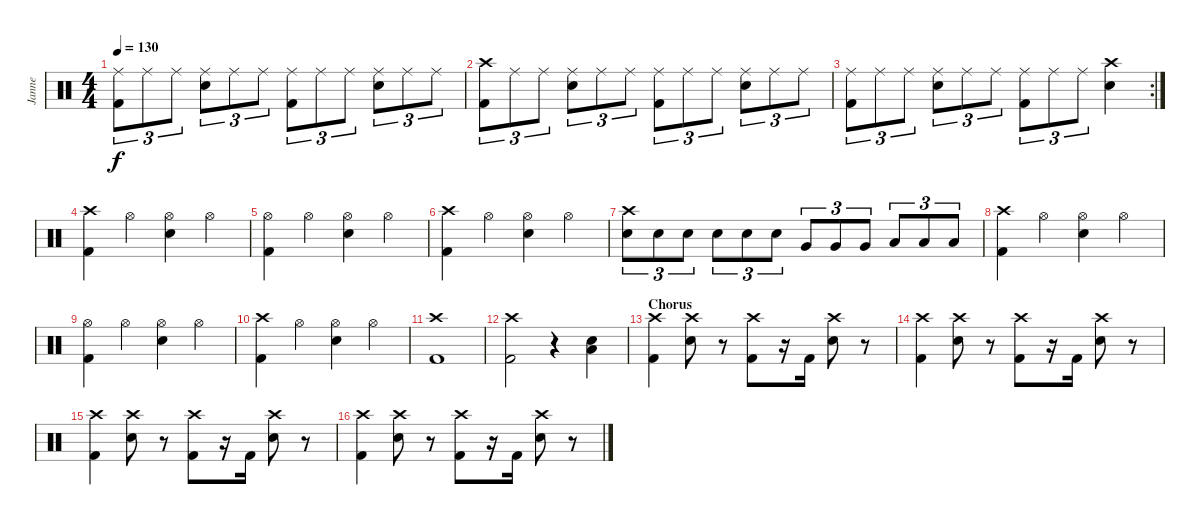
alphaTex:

\track ("Janne" "Janne") {instrument percussion}
\staff {score}
\articulation defaults
\ts (4 4)
\tempo 130
\clef neutral
\ks c
("Ride (middle)" "Kick (hit) 2").8{tu (3 2) dy f} "Ride (middle)".8{tu (3 2)} "Ride (middle)".8{tu (3 2)} ("Ride (middle)" "Electric Snare (hit)").8{tu (3 2)} "Ride (middle)".8{tu (3 2)} "Ride (middle)".8{tu (3 2)} ("Ride (middle)" "Kick (hit) 2").8{tu (3 2)} "Ride (middle)".8{tu (3 2)} "Ride (middle)".8{tu (3 2)} ("Ride (middle)" "Electric Snare (hit)").8{tu (3 2)} "Ride (middle)".8{tu (3 2)} "Ride (middle)".8{tu (3 2)} |
("Crash high (hit)" "Kick (hit) 2").8{tu (3 2)} "Ride (middle)".8{tu (3 2)} "Ride (middle)".8{tu (3 2)} ("Ride (middle)" "Electric Snare (hit)").8{tu (3 2)} "Ride (middle)".8{tu (3 2)} "Ride (middle)".8{tu (3 2)} ("Ride (middle)" "Kick (hit) 2").8{tu (3 2)} "Ride (middle)".8{tu (3 2)} "Ride (middle)".8{tu (3 2)} ("Ride (middle)" "Electric Snare (hit)").8{tu (3 2)} "Ride (middle)".8{tu (3 2)} "Ride (middle)".8{tu (3 2)} |
\rc 2
("Ride (middle)" "Kick (hit) 2").8{tu (3 2)} "Ride (middle)".8{tu (3 2)} "Ride (middle)".8{tu (3 2)} ("Ride (middle)" "Electric Snare (hit)").8{tu (3 2)} "Ride (middle)".8{tu (3 2)} "Ride (middle)".8{tu (3 2)} ("Ride (middle)" "Kick (hit) 2").8{tu (3 2)} "Ride (middle)".8{tu (3 2)} "Ride (middle)".8{tu (3 2)} ("Crash high (hit)" "Electric Snare (hit)").4 |
("Crash high (hit)" "Kick (hit) 2").4 "Hi-Hat (open)".4 ("Hi-Hat (open)" "Electric Snare (hit)").4 "Hi-Hat (open)".4 |
("Hi-Hat (open)" "Kick (hit) 2").4 "Hi-Hat (open)".4 ("Hi-Hat (open)" "Electric Snare (hit)").4 "Hi-Hat (open)".4 |
("Crash high (hit)" "Kick (hit) 2").4 "Hi-Hat (open)".4 ("Hi-Hat (open)" "Electric Snare (hit)").4 "Hi-Hat (open)".4 |
("Crash high (hit)" "Electric Snare (hit)").8{tu (3 2)} "Electric Snare (hit)".8{tu (3 2)} "Electric Snare (hit)".8{tu (3 2)} "Electric Snare (hit)".8{tu (3 2)} "Electric Snare (hit)".8{tu (3 2)} "Electric Snare (hit)".8{tu (3 2)} "Very Low Tom (hit)".8{tu (3 2)} "Very Low Tom (hit)".8{tu (3 2)} "Very Low Tom (hit)".8{tu (3 2)} "Low Floor Tom (hit)".8{tu (3 2)} "Low Floor Tom (hit)".8{tu (3 2)} "Low Floor Tom (hit)".8{tu (3 2)} |
("Crash high (hit)" "Kick (hit) 2").4 "Hi-Hat (open)".4 ("Hi-Hat (open)" "Electric Snare (hit)").4 "Hi-Hat (open)".4 |
("Hi-Hat (open)" "Kick (hit) 2").4 "Hi-Hat (open)".4 ("Hi-Hat (open)" "Electric Snare (hit)").4 "Hi-Hat (open)".4 |
("Crash high (hit)" "Kick (hit) 2").4 "Hi-Hat (open)".4 ("Hi-Hat (open)" "Electric Snare (hit)").4 "Hi-Hat (open)".4 |
("Crash high (hit)" "Kick (hit) 2").1 |
("Crash high (hit)" "Kick (hit) 2").2 r.4 ("Low Floor Tom (hit)" "Electric Snare (hit)").4 |
\section ("" "Chorus")
("Crash high (hit)" "Kick (hit) 2").4 ("Crash high (hit)" "Electric Snare (hit)").8 r.8 ("Crash high (hit)" "Kick (hit) 2").8 r.16 "Kick (hit) 2".16 ("Crash high (hit)" "Electric Snare (hit)").8 r.8 |
("Crash high (hit)" "Kick (hit) 2").4 ("Crash high (hit)" "Electric Snare (hit)").8 r.8 ("Crash high (hit)" "Kick (hit) 2").8 r.16 "Kick (hit) 2".16 ("Crash high (hit)" "Electric Snare (hit)").8 r.8 |
("Crash high (hit)" "Kick (hit) 2").4 ("Crash high (hit)" "Electric Snare (hit)").8 r.8 ("Crash high (hit)" "Kick (hit) 2").8 r.16 "Kick (hit) 2".16 ("Crash high (hit)" "Electric Snare (hit)").8 r.8 |
("Crash high (hit)" "Kick (hit) 2").4 ("Crash high (hit)" "Electric Snare (hit)").8 r.8 ("Crash high (hit)" "Kick (hit) 2").8 r.16 "Kick (hit) 2".16 ("Crash high (hit)" "Electric Snare (hit)").8 r.8
